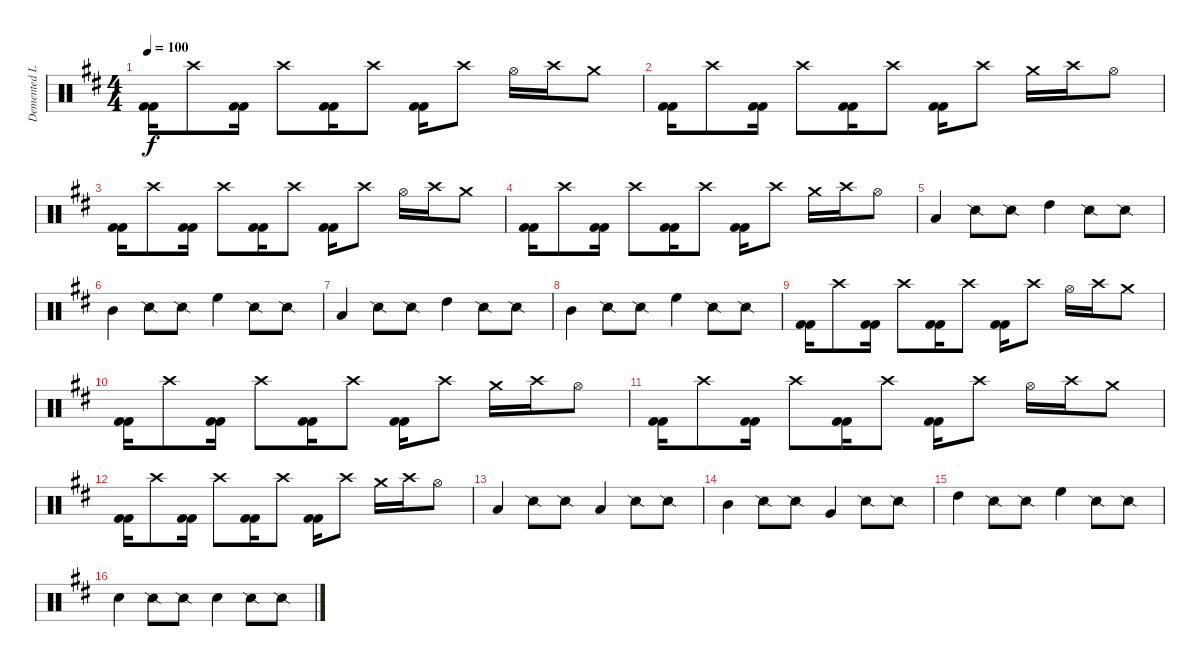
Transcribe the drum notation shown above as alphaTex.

\track ("Demented Leming (Drums)" "Demented L") {instrument percussion}
\staff {score}
\articulation defaults
\ts (4 4)
\tempo 100
\clef neutral
\ks d
("Kick (hit) 2" "Kick (hit) 2").16{dy f} "Crash high (hit)".8 ("Kick (hit) 2" "Kick (hit) 2").16 "Crash high (hit)".8 ("Kick (hit) 2" "Kick (hit) 2").16 "Crash high (hit)".8 ("Kick (hit) 2" "Kick (hit) 2").16 "Crash high (hit)".8 "Hi-Hat (open)".16 "Crash high (hit)".16 "Crash medium (hit)".8 |
("Kick (hit) 2" "Kick (hit) 2").16 "Crash high (hit)".8 ("Kick (hit) 2" "Kick (hit) 2").16 "Crash high (hit)".8 ("Kick (hit) 2" "Kick (hit) 2").16 "Crash high (hit)".8 ("Kick (hit) 2" "Kick (hit) 2").16 "Crash high (hit)".8 "Crash medium (hit)".16 "Crash high (hit)".16 "Hi-Hat (open)".8 |
("Kick (hit) 2" "Kick (hit) 2").16 "Crash high (hit)".8 ("Kick (hit) 2" "Kick (hit) 2").16 "Crash high (hit)".8 ("Kick (hit) 2" "Kick (hit) 2").16 "Crash high (hit)".8 ("Kick (hit) 2" "Kick (hit) 2").16 "Crash high (hit)".8 "Hi-Hat (open)".16 "Crash high (hit)".16 "Crash medium (hit)".8 |
("Kick (hit) 2" "Kick (hit) 2").16 "Crash high (hit)".8 ("Kick (hit) 2" "Kick (hit) 2").16 "Crash high (hit)".8 ("Kick (hit) 2" "Kick (hit) 2").16 "Crash high (hit)".8 ("Kick (hit) 2" "Kick (hit) 2").16 "Crash high (hit)".8 "Crash medium (hit)".16 "Crash high (hit)".16 "Hi-Hat (open)".8 |
"Low Tom (hit)".4 "Snare (side stick) 2".8 "Snare (side stick) 2".8 "High Tom (hit)".4 "Snare (side stick) 2".8 "Snare (side stick) 2".8 |
"Mid Tom (hit)".4 "Snare (side stick) 2".8 "Snare (side stick) 2".8 "High Floor Tom (hit)".4 "Snare (side stick) 2".8 "Snare (side stick) 2".8 |
"Low Tom (hit)".4 "Snare (side stick) 2".8 "Snare (side stick) 2".8 "High Tom (hit)".4 "Snare (side stick) 2".8 "Snare (side stick) 2".8 |
"Mid Tom (hit)".4 "Snare (side stick) 2".8 "Snare (side stick) 2".8 "High Floor Tom (hit)".4 "Snare (side stick) 2".8 "Snare (side stick) 2".8 |
("Kick (hit) 2" "Kick (hit) 2").16 "Crash high (hit)".8 ("Kick (hit) 2" "Kick (hit) 2").16 "Crash high (hit)".8 ("Kick (hit) 2" "Kick (hit) 2").16 "Crash high (hit)".8 ("Kick (hit) 2" "Kick (hit) 2").16 "Crash high (hit)".8 "Hi-Hat (open)".16 "Crash high (hit)".16 "Crash medium (hit)".8 |
("Kick (hit) 2" "Kick (hit) 2").16 "Crash high (hit)".8 ("Kick (hit) 2" "Kick (hit) 2").16 "Crash high (hit)".8 ("Kick (hit) 2" "Kick (hit) 2").16 "Crash high (hit)".8 ("Kick (hit) 2" "Kick (hit) 2").16 "Crash high (hit)".8 "Crash medium (hit)".16 "Crash high (hit)".16 "Hi-Hat (open)".8 |
("Kick (hit) 2" "Kick (hit) 2").16 "Crash high (hit)".8 ("Kick (hit) 2" "Kick (hit) 2").16 "Crash high (hit)".8 ("Kick (hit) 2" "Kick (hit) 2").16 "Crash high (hit)".8 ("Kick (hit) 2" "Kick (hit) 2").16 "Crash high (hit)".8 "Hi-Hat (open)".16 "Crash high (hit)".16 "Crash medium (hit)".8 |
("Kick (hit) 2" "Kick (hit) 2").16 "Crash high (hit)".8 ("Kick (hit) 2" "Kick (hit) 2").16 "Crash high (hit)".8 ("Kick (hit) 2" "Kick (hit) 2").16 "Crash high (hit)".8 ("Kick (hit) 2" "Kick (hit) 2").16 "Crash high (hit)".8 "Crash medium (hit)".16 "Crash high (hit)".16 "Hi-Hat (open)".8 |
"Low Floor Tom (hit)".4 "Snare (side stick) 2".8 "Snare (side stick) 2".8 "Low Tom (hit)".4 "Snare (side stick) 2".8 "Snare (side stick) 2".8 |
"Mid Tom (hit)".4 "Snare (side stick) 2".8 "Snare (side stick) 2".8 "Very Low Tom (hit)".4 "Snare (side stick) 2".8 "Snare (side stick) 2".8 |
"High Tom (hit)".4 "Snare (side stick) 2".8 "Snare (side stick) 2".8 "High Floor Tom (hit)".4 "Snare (side stick) 2".8 "Snare (side stick) 2".8 |
"Electric Snare (hit)".4 "Snare (side stick) 2".8 "Snare (side stick) 2".8 "Electric Snare (hit)".4 "Snare (side stick) 2".8 "Snare (side stick) 2".8
